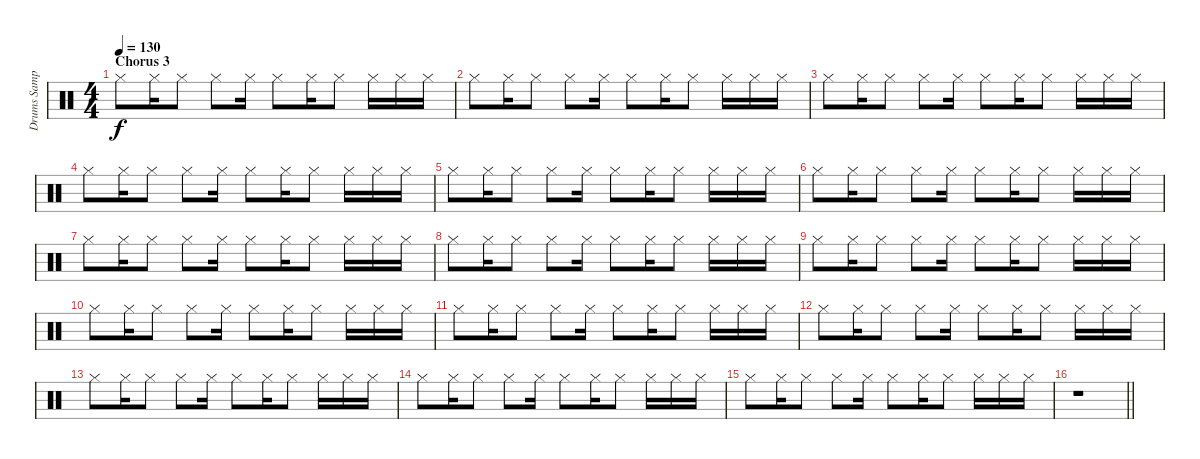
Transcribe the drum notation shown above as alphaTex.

\track ("Drums Sample" "Drums Samp") {instrument percussion}
\staff {score}
\articulation defaults
\ts (4 4)
\section ("" "Chorus 3")
\tempo 130
\clef neutral
\ks c "Hi-Hat (closed)".8{dy f} "Hi-Hat (closed)".16 "Hi-Hat (closed)".8 "Hi-Hat (closed)".8 "Hi-Hat (closed)".16 "Hi-Hat (closed)".8 "Hi-Hat (closed)".16 "Hi-Hat (closed)".8 "Hi-Hat (closed)".16 "Hi-Hat (closed)".16 "Hi-Hat (closed)".16
|
"Hi-Hat (closed)".8 "Hi-Hat (closed)".16 "Hi-Hat (closed)".8 "Hi-Hat (closed)".8 "Hi-Hat (closed)".16 "Hi-Hat (closed)".8 "Hi-Hat (closed)".16 "Hi-Hat (closed)".8 "Hi-Hat (closed)".16 "Hi-Hat (closed)".16 "Hi-Hat (closed)".16 |
"Hi-Hat (closed)".8 "Hi-Hat (closed)".16 "Hi-Hat (closed)".8 "Hi-Hat (closed)".8 "Hi-Hat (closed)".16 "Hi-Hat (closed)".8 "Hi-Hat (closed)".16 "Hi-Hat (closed)".8 "Hi-Hat (closed)".16 "Hi-Hat (closed)".16 "Hi-Hat (closed)".16 |
"Hi-Hat (closed)".8 "Hi-Hat (closed)".16 "Hi-Hat (closed)".8 "Hi-Hat (closed)".8 "Hi-Hat (closed)".16 "Hi-Hat (closed)".8 "Hi-Hat (closed)".16 "Hi-Hat (closed)".8 "Hi-Hat (closed)".16 "Hi-Hat (closed)".16 "Hi-Hat (closed)".16 |
"Hi-Hat (closed)".8 "Hi-Hat (closed)".16 "Hi-Hat (closed)".8 "Hi-Hat (closed)".8 "Hi-Hat (closed)".16 "Hi-Hat (closed)".8 "Hi-Hat (closed)".16 "Hi-Hat (closed)".8 "Hi-Hat (closed)".16 "Hi-Hat (closed)".16 "Hi-Hat (closed)".16 |
"Hi-Hat (closed)".8 "Hi-Hat (closed)".16 "Hi-Hat (closed)".8 "Hi-Hat (closed)".8 "Hi-Hat (closed)".16 "Hi-Hat (closed)".8 "Hi-Hat (closed)".16 "Hi-Hat (closed)".8 "Hi-Hat (closed)".16 "Hi-Hat (closed)".16 "Hi-Hat (closed)".16 |
"Hi-Hat (closed)".8 "Hi-Hat (closed)".16 "Hi-Hat (closed)".8 "Hi-Hat (closed)".8 "Hi-Hat (closed)".16 "Hi-Hat (closed)".8 "Hi-Hat (closed)".16 "Hi-Hat (closed)".8 "Hi-Hat (closed)".16 "Hi-Hat (closed)".16 "Hi-Hat (closed)".16 |
"Hi-Hat (closed)".8 "Hi-Hat (closed)".16 "Hi-Hat (closed)".8 "Hi-Hat (closed)".8 "Hi-Hat (closed)".16 "Hi-Hat (closed)".8 "Hi-Hat (closed)".16 "Hi-Hat (closed)".8 "Hi-Hat (closed)".16 "Hi-Hat (closed)".16 "Hi-Hat (closed)".16 |
"Hi-Hat (closed)".8 "Hi-Hat (closed)".16 "Hi-Hat (closed)".8 "Hi-Hat (closed)".8 "Hi-Hat (closed)".16 "Hi-Hat (closed)".8 "Hi-Hat (closed)".16 "Hi-Hat (closed)".8 "Hi-Hat (closed)".16 "Hi-Hat (closed)".16 "Hi-Hat (closed)".16 |
"Hi-Hat (closed)".8 "Hi-Hat (closed)".16 "Hi-Hat (closed)".8 "Hi-Hat (closed)".8 "Hi-Hat (closed)".16 "Hi-Hat (closed)".8 "Hi-Hat (closed)".16 "Hi-Hat (closed)".8 "Hi-Hat (closed)".16 "Hi-Hat (closed)".16 "Hi-Hat (closed)".16 |
"Hi-Hat (closed)".8 "Hi-Hat (closed)".16 "Hi-Hat (closed)".8 "Hi-Hat (closed)".8 "Hi-Hat (closed)".16 "Hi-Hat (closed)".8 "Hi-Hat (closed)".16 "Hi-Hat (closed)".8 "Hi-Hat (closed)".16 "Hi-Hat (closed)".16 "Hi-Hat (closed)".16 |
"Hi-Hat (closed)".8 "Hi-Hat (closed)".16 "Hi-Hat (closed)".8 "Hi-Hat (closed)".8 "Hi-Hat (closed)".16 "Hi-Hat (closed)".8 "Hi-Hat (closed)".16 "Hi-Hat (closed)".8 "Hi-Hat (closed)".16 "Hi-Hat (closed)".16 "Hi-Hat (closed)".16 |
"Hi-Hat (closed)".8 "Hi-Hat (closed)".16 "Hi-Hat (closed)".8 "Hi-Hat (closed)".8 "Hi-Hat (closed)".16 "Hi-Hat (closed)".8 "Hi-Hat (closed)".16 "Hi-Hat (closed)".8 "Hi-Hat (closed)".16 "Hi-Hat (closed)".16 "Hi-Hat (closed)".16 |
"Hi-Hat (closed)".8 "Hi-Hat (closed)".16 "Hi-Hat (closed)".8 "Hi-Hat (closed)".8 "Hi-Hat (closed)".16 "Hi-Hat (closed)".8 "Hi-Hat (closed)".16 "Hi-Hat (closed)".8 "Hi-Hat (closed)".16 "Hi-Hat (closed)".16 "Hi-Hat (closed)".16 |
"Hi-Hat (closed)".8 "Hi-Hat (closed)".16 "Hi-Hat (closed)".8 "Hi-Hat (closed)".8 "Hi-Hat (closed)".16 "Hi-Hat (closed)".8 "Hi-Hat (closed)".16 "Hi-Hat (closed)".8 "Hi-Hat (closed)".16 "Hi-Hat (closed)".16 "Hi-Hat (closed)".16 |
\barLineRight lightlight
r.1
